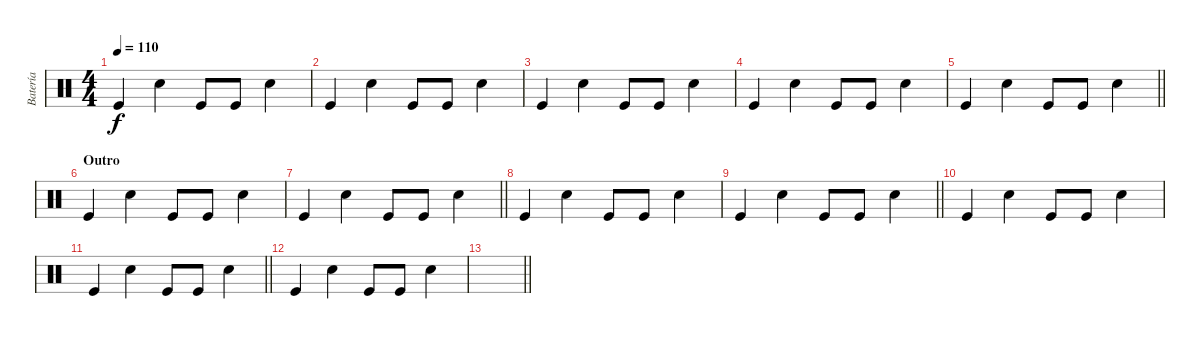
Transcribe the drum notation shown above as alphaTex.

\track ("Batería" "Batería") {instrument percussion}
\staff {score}
\articulation defaults
\ts (4 4)
\tempo 110
\clef neutral
\ks c "Kick (hit)".4{dy f} "Electric Snare (hit)".4 "Kick (hit)".8 "Kick (hit)".8 "Electric Snare (hit)".4
|
"Kick (hit)".4 "Electric Snare (hit)".4 "Kick (hit)".8 "Kick (hit)".8 "Electric Snare (hit)".4 |
"Kick (hit)".4 "Electric Snare (hit)".4 "Kick (hit)".8 "Kick (hit)".8 "Electric Snare (hit)".4 |
"Kick (hit)".4 "Electric Snare (hit)".4 "Kick (hit)".8 "Kick (hit)".8 "Electric Snare (hit)".4 |
\barLineRight lightlight "Kick (hit)".4 "Electric Snare (hit)".4 "Kick (hit)".8 "Kick (hit)".8 "Electric Snare (hit)".4
|
\section ("" "Outro")
"Kick (hit)".4 "Electric Snare (hit)".4 "Kick (hit)".8 "Kick (hit)".8 "Electric Snare (hit)".4 |
\barLineRight lightlight "Kick (hit)".4 "Electric Snare (hit)".4 "Kick (hit)".8 "Kick (hit)".8 "Electric Snare (hit)".4
|
"Kick (hit)".4 "Electric Snare (hit)".4 "Kick (hit)".8 "Kick (hit)".8 "Electric Snare (hit)".4 |
\barLineRight lightlight "Kick (hit)".4 "Electric Snare (hit)".4 "Kick (hit)".8 "Kick (hit)".8 "Electric Snare (hit)".4
|
"Kick (hit)".4 "Electric Snare (hit)".4 "Kick (hit)".8 "Kick (hit)".8 "Electric Snare (hit)".4 |
\barLineRight lightlight "Kick (hit)".4 "Electric Snare (hit)".4 "Kick (hit)".8 "Kick (hit)".8 "Electric Snare (hit)".4
|
"Kick (hit)".4 "Electric Snare (hit)".4 "Kick (hit)".8 "Kick (hit)".8 "Electric Snare (hit)".4 |
\barLineRight lightlight
